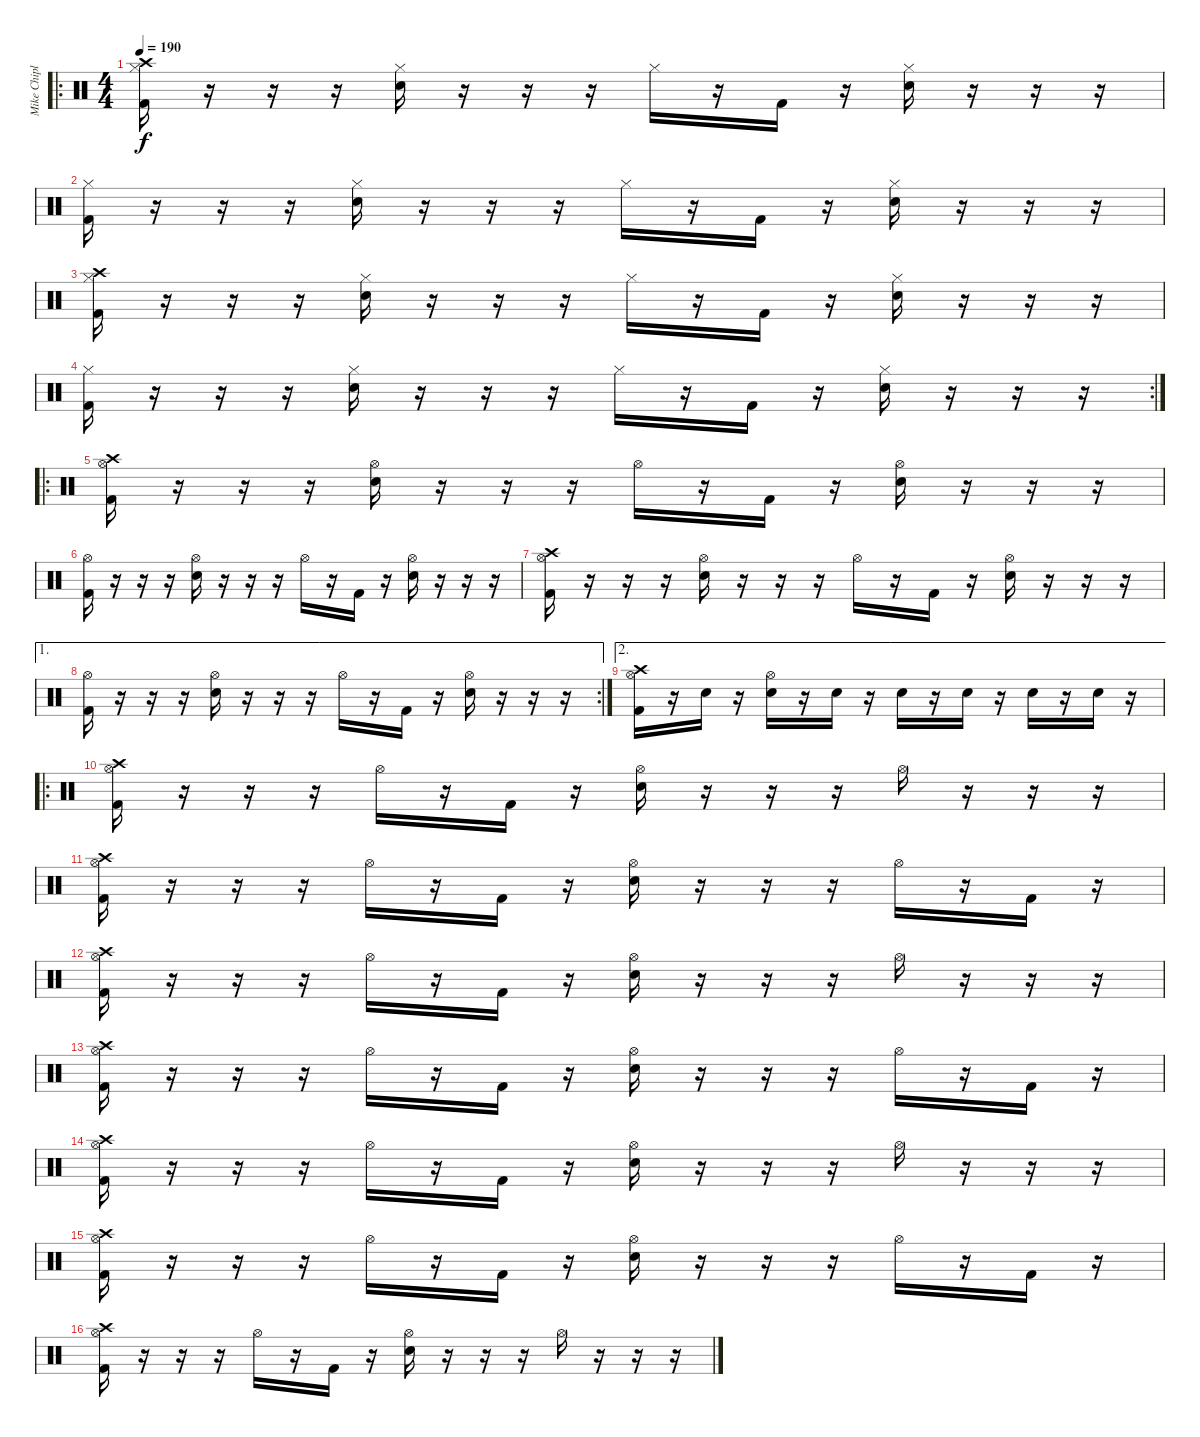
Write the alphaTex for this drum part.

\track ("Mike Chiplin" "Mike Chipl") {instrument percussion}
\staff {score}
\articulation defaults
\ro
\ts (4 4)
\tempo 190
\clef neutral
\ks c
("Hi-Hat (closed)" "Kick (hit) 2" "Crash high (hit)").16{dy f} r.16 r.16 r.16 ("Hi-Hat (closed)" "Snare (hit) 2").16 r.16 r.16 r.16 "Hi-Hat (closed)".16 r.16 "Kick (hit) 2".16 r.16 ("Hi-Hat (closed)" "Snare (hit) 2").16 r.16 r.16 r.16 |
("Hi-Hat (closed)" "Kick (hit) 2").16 r.16 r.16 r.16 ("Hi-Hat (closed)" "Snare (hit) 2").16 r.16 r.16 r.16 "Hi-Hat (closed)".16 r.16 "Kick (hit) 2".16 r.16 ("Hi-Hat (closed)" "Snare (hit) 2").16 r.16 r.16 r.16 |
("Hi-Hat (closed)" "Kick (hit) 2" "Crash high (hit)").16 r.16 r.16 r.16 ("Hi-Hat (closed)" "Snare (hit) 2").16 r.16 r.16 r.16 "Hi-Hat (closed)".16 r.16 "Kick (hit) 2".16 r.16 ("Hi-Hat (closed)" "Snare (hit) 2").16 r.16 r.16 r.16 |
\rc 2
("Hi-Hat (closed)" "Kick (hit) 2").16 r.16 r.16 r.16 ("Hi-Hat (closed)" "Snare (hit) 2").16 r.16 r.16 r.16 "Hi-Hat (closed)".16 r.16 "Kick (hit) 2".16 r.16 ("Hi-Hat (closed)" "Snare (hit) 2").16 r.16 r.16 r.16 |
\ro
("Hi-Hat (open)" "Crash high (hit)" "Kick (hit) 2").16 r.16 r.16 r.16 ("Hi-Hat (open)" "Snare (hit) 2").16 r.16 r.16 r.16 "Hi-Hat (open)".16 r.16 "Kick (hit) 2".16 r.16 ("Hi-Hat (open)" "Snare (hit) 2").16 r.16 r.16 r.16 |
("Hi-Hat (open)" "Kick (hit) 2").16 r.16 r.16 r.16 ("Hi-Hat (open)" "Snare (hit) 2").16 r.16 r.16 r.16 "Hi-Hat (open)".16 r.16 "Kick (hit) 2".16 r.16 ("Hi-Hat (open)" "Snare (hit) 2").16 r.16 r.16 r.16 |
("Hi-Hat (open)" "Crash high (hit)" "Kick (hit) 2").16 r.16 r.16 r.16 ("Hi-Hat (open)" "Snare (hit) 2").16 r.16 r.16 r.16 "Hi-Hat (open)".16 r.16 "Kick (hit) 2".16 r.16 ("Hi-Hat (open)" "Snare (hit) 2").16 r.16 r.16 r.16 |
\ae 1
\rc 2
("Hi-Hat (open)" "Kick (hit) 2").16 r.16 r.16 r.16 ("Hi-Hat (open)" "Snare (hit) 2").16 r.16 r.16 r.16 "Hi-Hat (open)".16 r.16 "Kick (hit) 2".16 r.16 ("Hi-Hat (open)" "Snare (hit) 2").16 r.16 r.16 r.16 |
\ae 2
("Hi-Hat (open)" "Crash high (hit)" "Kick (hit) 2").16 r.16 "Snare (hit) 2".16 r.16 ("Hi-Hat (open)" "Snare (hit) 2").16 r.16 "Snare (hit) 2".16 r.16 "Snare (hit) 2".16 r.16 "Snare (hit) 2".16 r.16 "Snare (hit) 2".16 r.16 "Snare (hit) 2".16 r.16 |
\ro
("Hi-Hat (open)" "Kick (hit) 2" "Crash high (hit)").16 r.16 r.16 r.16 "Hi-Hat (open)".16 r.16 "Kick (hit) 2".16 r.16 ("Hi-Hat (open)" "Snare (hit) 2").16 r.16 r.16 r.16 "Hi-Hat (open)".16 r.16 r.16 r.16 |
("Hi-Hat (open)" "Kick (hit) 2" "Crash high (hit)").16 r.16 r.16 r.16 "Hi-Hat (open)".16 r.16 "Kick (hit) 2".16 r.16 ("Hi-Hat (open)" "Snare (hit) 2").16 r.16 r.16 r.16 "Hi-Hat (open)".16 r.16 "Kick (hit) 2".16 r.16 |
("Hi-Hat (open)" "Kick (hit) 2" "Crash high (hit)").16 r.16 r.16 r.16 "Hi-Hat (open)".16 r.16 "Kick (hit) 2".16 r.16 ("Hi-Hat (open)" "Snare (hit) 2").16 r.16 r.16 r.16 "Hi-Hat (open)".16 r.16 r.16 r.16 |
("Hi-Hat (open)" "Kick (hit) 2" "Crash high (hit)").16 r.16 r.16 r.16 "Hi-Hat (open)".16 r.16 "Kick (hit) 2".16 r.16 ("Hi-Hat (open)" "Snare (hit) 2").16 r.16 r.16 r.16 "Hi-Hat (open)".16 r.16 "Kick (hit) 2".16 r.16 |
("Hi-Hat (open)" "Kick (hit) 2" "Crash high (hit)").16 r.16 r.16 r.16 "Hi-Hat (open)".16 r.16 "Kick (hit) 2".16 r.16 ("Hi-Hat (open)" "Snare (hit) 2").16 r.16 r.16 r.16 "Hi-Hat (open)".16 r.16 r.16 r.16 |
("Hi-Hat (open)" "Kick (hit) 2" "Crash high (hit)").16 r.16 r.16 r.16 "Hi-Hat (open)".16 r.16 "Kick (hit) 2".16 r.16 ("Hi-Hat (open)" "Snare (hit) 2").16 r.16 r.16 r.16 "Hi-Hat (open)".16 r.16 "Kick (hit) 2".16 r.16 |
("Hi-Hat (open)" "Kick (hit) 2" "Crash high (hit)").16 r.16 r.16 r.16 "Hi-Hat (open)".16 r.16 "Kick (hit) 2".16 r.16 ("Hi-Hat (open)" "Snare (hit) 2").16 r.16 r.16 r.16 "Hi-Hat (open)".16 r.16 r.16 r.16
